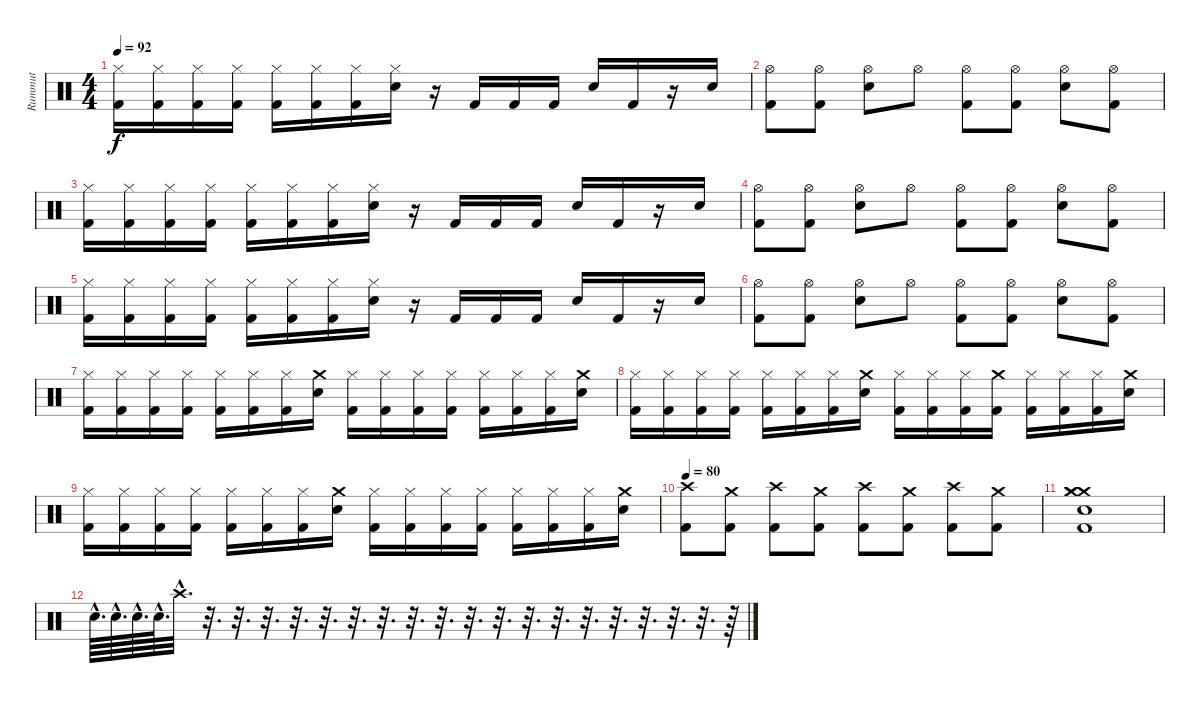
\track ("Rummut" "Rummut") {instrument percussion}
\staff {score}
\articulation defaults
\ts (4 4)
\tempo 92
\clef neutral
\ks c
("Hi-Hat (closed)" "Kick (hit) 2").16{dy f} ("Hi-Hat (closed)" "Kick (hit) 2").16 ("Hi-Hat (closed)" "Kick (hit) 2").16 ("Hi-Hat (closed)" "Kick (hit) 2").16 ("Hi-Hat (closed)" "Kick (hit) 2").16 ("Hi-Hat (closed)" "Kick (hit) 2").16 ("Hi-Hat (closed)" "Kick (hit) 2").16 ("Hi-Hat (closed)" "Snare (hit) 2").16 r.16 "Kick (hit) 2".16 "Kick (hit) 2".16 "Kick (hit) 2".16 "Snare (hit) 2".16 "Kick (hit) 2".16 r.16 "Snare (hit) 2".16 |
("Hi-Hat (open)" "Kick (hit) 2").8 ("Hi-Hat (open)" "Kick (hit) 2").8 ("Hi-Hat (open)" "Snare (hit) 2").8 "Hi-Hat (open)".8 ("Hi-Hat (open)" "Kick (hit) 2").8 ("Hi-Hat (open)" "Kick (hit) 2").8 ("Hi-Hat (open)" "Snare (hit) 2").8 ("Hi-Hat (open)" "Kick (hit) 2").8 |
("Hi-Hat (closed)" "Kick (hit) 2").16 ("Hi-Hat (closed)" "Kick (hit) 2").16 ("Hi-Hat (closed)" "Kick (hit) 2").16 ("Hi-Hat (closed)" "Kick (hit) 2").16 ("Hi-Hat (closed)" "Kick (hit) 2").16 ("Hi-Hat (closed)" "Kick (hit) 2").16 ("Hi-Hat (closed)" "Kick (hit) 2").16 ("Hi-Hat (closed)" "Snare (hit) 2").16 r.16 "Kick (hit) 2".16 "Kick (hit) 2".16 "Kick (hit) 2".16 "Snare (hit) 2".16 "Kick (hit) 2".16 r.16 "Snare (hit) 2".16 |
("Hi-Hat (open)" "Kick (hit) 2").8 ("Hi-Hat (open)" "Kick (hit) 2").8 ("Hi-Hat (open)" "Snare (hit) 2").8 "Hi-Hat (open)".8 ("Hi-Hat (open)" "Kick (hit) 2").8 ("Hi-Hat (open)" "Kick (hit) 2").8 ("Hi-Hat (open)" "Snare (hit) 2").8 ("Hi-Hat (open)" "Kick (hit) 2").8 |
("Hi-Hat (closed)" "Kick (hit) 2").16 ("Hi-Hat (closed)" "Kick (hit) 2").16 ("Hi-Hat (closed)" "Kick (hit) 2").16 ("Hi-Hat (closed)" "Kick (hit) 2").16 ("Hi-Hat (closed)" "Kick (hit) 2").16 ("Hi-Hat (closed)" "Kick (hit) 2").16 ("Hi-Hat (closed)" "Kick (hit) 2").16 ("Hi-Hat (closed)" "Snare (hit) 2").16 r.16 "Kick (hit) 2".16 "Kick (hit) 2".16 "Kick (hit) 2".16 "Snare (hit) 2".16 "Kick (hit) 2".16 r.16 "Snare (hit) 2".16 |
("Hi-Hat (open)" "Kick (hit) 2").8 ("Hi-Hat (open)" "Kick (hit) 2").8 ("Hi-Hat (open)" "Snare (hit) 2").8 "Hi-Hat (open)".8 ("Hi-Hat (open)" "Kick (hit) 2").8 ("Hi-Hat (open)" "Kick (hit) 2").8 ("Hi-Hat (open)" "Snare (hit) 2").8 ("Hi-Hat (open)" "Kick (hit) 2").8 |
("Hi-Hat (closed)" "Kick (hit) 2").16 ("Hi-Hat (closed)" "Kick (hit) 2").16 ("Hi-Hat (closed)" "Kick (hit) 2").16 ("Hi-Hat (closed)" "Kick (hit) 2").16 ("Hi-Hat (closed)" "Kick (hit) 2").16 ("Hi-Hat (closed)" "Kick (hit) 2").16 ("Hi-Hat (closed)" "Kick (hit) 2").16 ("Crash medium (hit)" "Snare (hit) 2").16 ("Hi-Hat (closed)" "Kick (hit) 2").16 ("Hi-Hat (closed)" "Kick (hit) 2").16 ("Hi-Hat (closed)" "Kick (hit) 2").16 ("Hi-Hat (closed)" "Kick (hit) 2").16 ("Hi-Hat (closed)" "Kick (hit) 2").16 ("Hi-Hat (closed)" "Kick (hit) 2").16 ("Hi-Hat (closed)" "Kick (hit) 2").16 ("Crash medium (hit)" "Snare (hit) 2").16 |
("Hi-Hat (closed)" "Kick (hit) 2").16 ("Hi-Hat (closed)" "Kick (hit) 2").16 ("Hi-Hat (closed)" "Kick (hit) 2").16 ("Hi-Hat (closed)" "Kick (hit) 2").16 ("Hi-Hat (closed)" "Kick (hit) 2").16 ("Hi-Hat (closed)" "Kick (hit) 2").16 ("Hi-Hat (closed)" "Kick (hit) 2").16 ("Crash medium (hit)" "Snare (hit) 2").16 ("Hi-Hat (closed)" "Kick (hit) 2").16 ("Hi-Hat (closed)" "Kick (hit) 2").16 ("Hi-Hat (closed)" "Kick (hit) 2").16 ("Crash medium (hit)" "Kick (hit) 2").16 ("Hi-Hat (closed)" "Kick (hit) 2").16 ("Hi-Hat (closed)" "Kick (hit) 2").16 ("Hi-Hat (closed)" "Kick (hit) 2").16 ("Crash medium (hit)" "Snare (hit) 2").16 |
("Hi-Hat (closed)" "Kick (hit) 2").16 ("Hi-Hat (closed)" "Kick (hit) 2").16 ("Hi-Hat (closed)" "Kick (hit) 2").16 ("Hi-Hat (closed)" "Kick (hit) 2").16 ("Hi-Hat (closed)" "Kick (hit) 2").16 ("Hi-Hat (closed)" "Kick (hit) 2").16 ("Hi-Hat (closed)" "Kick (hit) 2").16 ("Crash medium (hit)" "Snare (hit) 2").16 ("Hi-Hat (closed)" "Kick (hit) 2").16 ("Hi-Hat (closed)" "Kick (hit) 2").16 ("Hi-Hat (closed)" "Kick (hit) 2").16 ("Hi-Hat (closed)" "Kick (hit) 2").16 ("Hi-Hat (closed)" "Kick (hit) 2").16 ("Hi-Hat (closed)" "Kick (hit) 2").16 ("Hi-Hat (closed)" "Kick (hit) 2").16 ("Crash medium (hit)" "Snare (hit) 2").16 |
\tempo 80
("Crash high (hit)" "Kick (hit) 2").8 ("Crash medium (hit)" "Kick (hit) 2").8 ("Crash high (hit)" "Kick (hit) 2").8 ("Crash medium (hit)" "Kick (hit) 2").8 ("Crash high (hit)" "Kick (hit) 2").8 ("Crash medium (hit)" "Kick (hit) 2").8 ("Crash high (hit)" "Kick (hit) 2").8 ("Crash medium (hit)" "Kick (hit) 2").8 |
("Kick (hit) 2" "Snare (hit) 2" "Crash medium (hit)" "Crash medium (hit)" "Crash medium (hit)").1 |
"Snare (hit) 2"{hac}.64{d} "Snare (hit) 2"{hac}.64{d} "Snare (hit) 2"{hac}.64{d} "Snare (hit) 2"{hac}.64{d} "Crash high (hit)"{hac}.32{d} r.32{d} r.32{d} r.32{d} r.32{d} r.32{d} r.32{d} r.32{d} r.32{d} r.32{d} r.32{d} r.32{d} r.32{d} r.32{d} r.32{d} r.32{d} r.32{d} r.32{d} r.32{d} r.64
